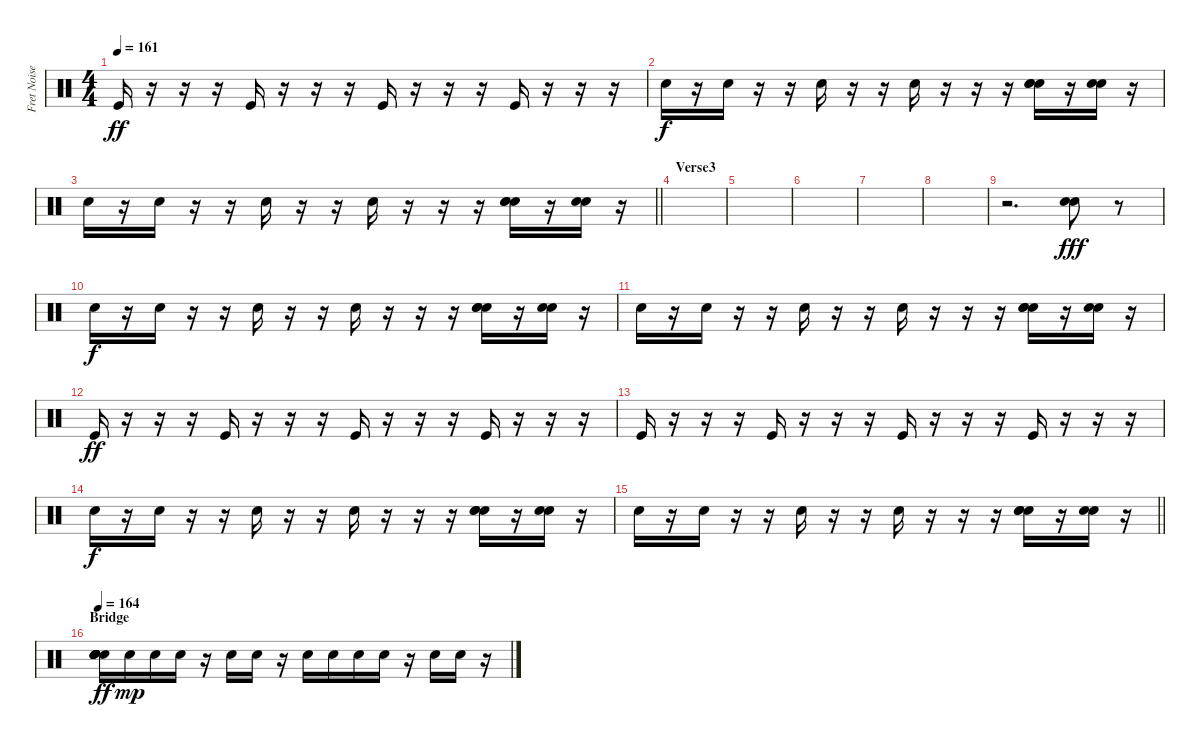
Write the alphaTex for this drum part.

\track ("Fret Noise / Percussion(corpus)" "Fret Noise") {instrument percussion}
\staff {score}
\articulation defaults
\ts (4 4)
\tempo 161
\clef neutral
\ks c "Kick (hit)".16{dy ff}
r.16 r.16 r.16 "Kick (hit)".16 r.16 r.16 r.16 "Kick (hit)".16 r.16 r.16 r.16 "Kick (hit)".16 r.16 r.16 r.16 |
"Snare (hit) 2".16{dy f} r.16 "Snare (hit) 2".16 r.16 r.16 "Snare (hit) 2".16 r.16 r.16 "Snare (hit) 2".16 r.16 r.16 r.16 ("Snare (hit) 2" "Snare (hit) 2" "Snare (hit) 2").16 r.16 ("Snare (hit) 2" "Snare (hit) 2").16 r.16 |
\barLineRight lightlight "Snare (hit) 2".16
r.16 "Snare (hit) 2".16 r.16 r.16 "Snare (hit) 2".16 r.16 r.16 "Snare (hit) 2".16 r.16 r.16 r.16 ("Snare (hit) 2" "Snare (hit) 2" "Snare (hit) 2").16 r.16 ("Snare (hit) 2" "Snare (hit) 2").16 r.16 |
\section ("" "Verse3")
|
|
|
|
|
r.2{d} ("Snare (hit) 2" "Snare (hit) 2").8{dy fff} r.8 |
"Snare (hit) 2".16{dy f} r.16 "Snare (hit) 2".16 r.16 r.16 "Snare (hit) 2".16 r.16 r.16 "Snare (hit) 2".16 r.16 r.16 r.16 ("Snare (hit) 2" "Snare (hit) 2" "Snare (hit) 2").16 r.16 ("Snare (hit) 2" "Snare (hit) 2").16 r.16 |
"Snare (hit) 2".16 r.16 "Snare (hit) 2".16 r.16 r.16 "Snare (hit) 2".16 r.16 r.16 "Snare (hit) 2".16 r.16 r.16 r.16 ("Snare (hit) 2" "Snare (hit) 2" "Snare (hit) 2").16 r.16 ("Snare (hit) 2" "Snare (hit) 2").16 r.16 |
"Kick (hit)".16{dy ff} r.16 r.16 r.16 "Kick (hit)".16 r.16 r.16 r.16 "Kick (hit)".16 r.16 r.16 r.16 "Kick (hit)".16 r.16 r.16 r.16 |
"Kick (hit)".16 r.16 r.16 r.16 "Kick (hit)".16 r.16 r.16 r.16 "Kick (hit)".16 r.16 r.16 r.16 "Kick (hit)".16 r.16 r.16 r.16 |
"Snare (hit) 2".16{dy f} r.16 "Snare (hit) 2".16 r.16 r.16 "Snare (hit) 2".16 r.16 r.16 "Snare (hit) 2".16 r.16 r.16 r.16 ("Snare (hit) 2" "Snare (hit) 2" "Snare (hit) 2").16 r.16 ("Snare (hit) 2" "Snare (hit) 2").16 r.16 |
\barLineRight lightlight "Snare (hit) 2".16
r.16 "Snare (hit) 2".16 r.16 r.16 "Snare (hit) 2".16 r.16 r.16 "Snare (hit) 2".16 r.16 r.16 r.16 ("Snare (hit) 2" "Snare (hit) 2" "Snare (hit) 2").16 r.16 ("Snare (hit) 2" "Snare (hit) 2").16 r.16 |
\section ("" "Bridge")
\tempo 164
("Snare (hit) 2" "Snare (hit) 2" "Snare (hit) 2" "Snare (hit) 2" "Snare (hit) 2" "Snare (hit) 2").16{dy ff} "Snare (hit) 2".16{dy mp} "Snare (hit) 2".16 "Snare (hit) 2".16 r.16 "Snare (hit) 2".16 "Snare (hit) 2".16 r.16 "Snare (hit) 2".16 "Snare (hit) 2".16 "Snare (hit) 2".16 "Snare (hit) 2".16 r.16 "Snare (hit) 2".16 "Snare (hit) 2".16 r.16
